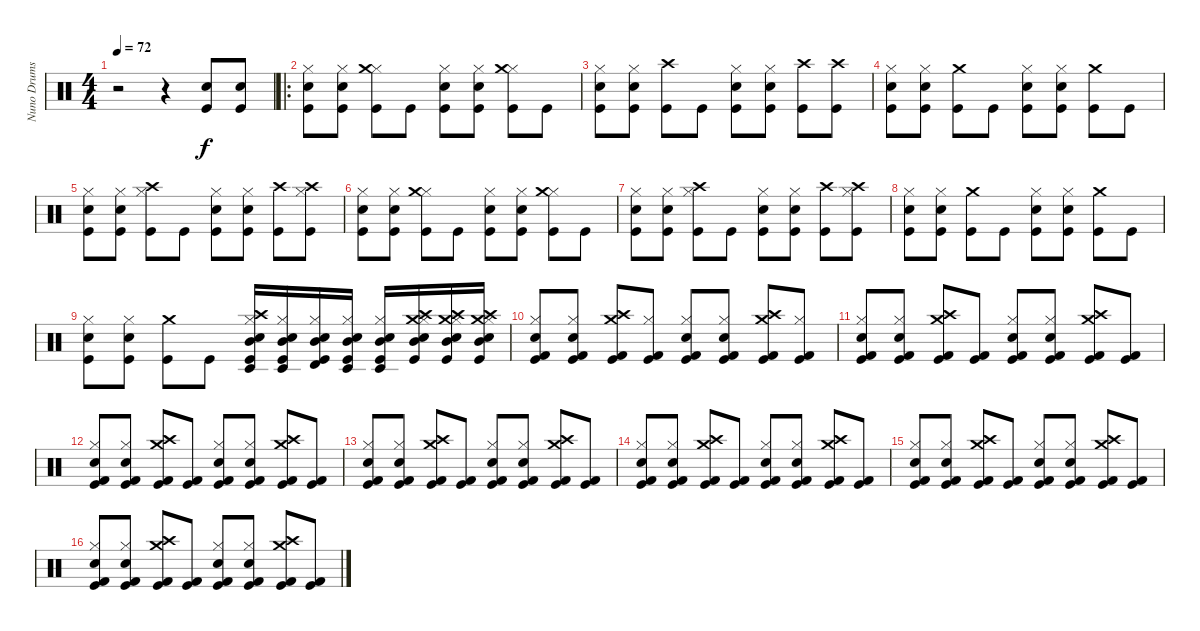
\track ("Nuno Drums" "Nuno Drums") {instrument percussion}
\staff {score}
\articulation defaults
\ts (4 4)
\tempo 72
\clef neutral
\ks c
r.2{dy f} r.4 ("Kick (hit)" "Electric Snare (hit)").8 ("Kick (hit)" "Electric Snare (hit)").8 |
\ro
("Kick (hit)" "Hi-Hat (closed)" "Electric Snare (hit)").8 ("Kick (hit)" "Hi-Hat (closed)" "Electric Snare (hit)").8 ("Kick (hit)" "Hi-Hat (closed)" "Crash medium (hit)").8 "Kick (hit)".8 ("Kick (hit)" "Hi-Hat (closed)" "Electric Snare (hit)").8 ("Kick (hit)" "Hi-Hat (closed)" "Electric Snare (hit)").8 ("Kick (hit)" "Hi-Hat (closed)" "Crash medium (hit)").8 "Kick (hit)".8 |
("Kick (hit)" "Hi-Hat (closed)" "Electric Snare (hit)").8 ("Kick (hit)" "Hi-Hat (closed)" "Electric Snare (hit)").8 ("Kick (hit)" "Crash high (hit)").8 "Kick (hit)".8 ("Kick (hit)" "Hi-Hat (closed)" "Electric Snare (hit)").8 ("Kick (hit)" "Hi-Hat (closed)" "Electric Snare (hit)").8 ("Kick (hit)" "Crash high (hit)").8 ("Kick (hit)" "Crash high (hit)").8 |
("Kick (hit)" "Hi-Hat (closed)" "Electric Snare (hit)").8 ("Kick (hit)" "Hi-Hat (closed)" "Electric Snare (hit)").8 ("Kick (hit)" "Crash medium (hit)").8 "Kick (hit)".8 ("Kick (hit)" "Hi-Hat (closed)" "Electric Snare (hit)").8 ("Kick (hit)" "Hi-Hat (closed)" "Electric Snare (hit)").8 ("Kick (hit)" "Crash medium (hit)").8 "Kick (hit)".8 |
("Kick (hit)" "Hi-Hat (closed)" "Electric Snare (hit)").8 ("Kick (hit)" "Hi-Hat (closed)" "Electric Snare (hit)").8 ("Kick (hit)" "Crash high (hit)" "Hi-Hat (closed)").8 "Kick (hit)".8 ("Kick (hit)" "Hi-Hat (closed)" "Electric Snare (hit)").8 ("Kick (hit)" "Hi-Hat (closed)" "Electric Snare (hit)").8 ("Kick (hit)" "Crash high (hit)").8 ("Kick (hit)" "Crash high (hit)" "Hi-Hat (closed)").8 |
("Kick (hit)" "Hi-Hat (closed)" "Electric Snare (hit)").8 ("Kick (hit)" "Hi-Hat (closed)" "Electric Snare (hit)").8 ("Kick (hit)" "Hi-Hat (closed)" "Crash medium (hit)").8 "Kick (hit)".8 ("Kick (hit)" "Hi-Hat (closed)" "Electric Snare (hit)").8 ("Kick (hit)" "Hi-Hat (closed)" "Electric Snare (hit)").8 ("Kick (hit)" "Hi-Hat (closed)" "Crash medium (hit)").8 "Kick (hit)".8 |
("Kick (hit)" "Hi-Hat (closed)" "Electric Snare (hit)").8 ("Kick (hit)" "Hi-Hat (closed)" "Electric Snare (hit)").8 ("Kick (hit)" "Crash high (hit)" "Hi-Hat (closed)").8 "Kick (hit)".8 ("Kick (hit)" "Hi-Hat (closed)" "Electric Snare (hit)").8 ("Kick (hit)" "Hi-Hat (closed)" "Electric Snare (hit)").8 ("Kick (hit)" "Crash high (hit)").8 ("Kick (hit)" "Crash high (hit)" "Hi-Hat (closed)").8 |
("Kick (hit)" "Hi-Hat (closed)" "Electric Snare (hit)").8 ("Kick (hit)" "Hi-Hat (closed)" "Electric Snare (hit)").8 ("Kick (hit)" "Crash medium (hit)").8 "Kick (hit)".8 ("Kick (hit)" "Hi-Hat (closed)" "Electric Snare (hit)").8 ("Kick (hit)" "Hi-Hat (closed)" "Electric Snare (hit)").8 ("Kick (hit)" "Crash medium (hit)").8 "Kick (hit)".8 |
("Kick (hit)" "Hi-Hat (closed)" "Electric Snare (hit)").8 ("Kick (hit)" "Hi-Hat (closed)" "Electric Snare (hit)").8 ("Kick (hit)" "Crash medium (hit)").8 "Kick (hit)".8 ("Hi-Hat (closed)" "Mid Tom (hit)" "Kick (hit)" "Crash high (hit)" "Timbale low (hit)" "Electric Snare (hit)").16 ("Hi-Hat (closed)" "Mid Tom (hit)" "Kick (hit)" "Timbale low (hit)" "Electric Snare (hit)").16 ("Hi-Hat (closed)" "Mid Tom (hit)" "Kick (hit)" "Timbale high (hit)" "Electric Snare (hit)").16 ("Hi-Hat (closed)" "Mid Tom (hit)" "Kick (hit)" "Timbale low (hit)" "Electric Snare (hit)").16 ("Hi-Hat (closed)" "Mid Tom (hit)" "Kick (hit)" "Timbale low (hit)" "Electric Snare (hit)").16 ("Electric Snare (hit)" "Mid Tom (hit)" "Kick (hit)" "Crash medium (hit)" "Hi-Hat (closed)" "Crash high (hit)").16 ("Electric Snare (hit)" "Mid Tom (hit)" "Kick (hit)" "Crash medium (hit)" "Hi-Hat (closed)" "Crash high (hit)").16 ("Electric Snare (hit)" "Mid Tom (hit)" "Kick (hit)" "Crash medium (hit)" "Hi-Hat (closed)" "Crash high (hit)").16 |
("Kick (hit)" "Kick (hit) 2" "Hi-Hat (closed)" "Electric Snare (hit)").8 ("Kick (hit)" "Kick (hit) 2" "Hi-Hat (closed)" "Electric Snare (hit)").8 ("Kick (hit)" "Kick (hit) 2" "Crash medium (hit)" "Crash high (hit)").8 ("Kick (hit)" "Kick (hit) 2" "Hi-Hat (closed)").8 ("Kick (hit)" "Kick (hit) 2" "Hi-Hat (closed)" "Electric Snare (hit)").8 ("Kick (hit)" "Kick (hit) 2" "Hi-Hat (closed)" "Electric Snare (hit)").8 ("Kick (hit)" "Kick (hit) 2" "Crash medium (hit)" "Crash high (hit)").8 ("Kick (hit)" "Kick (hit) 2" "Hi-Hat (closed)").8 |
("Kick (hit)" "Kick (hit) 2" "Hi-Hat (closed)" "Electric Snare (hit)").8 ("Kick (hit)" "Kick (hit) 2" "Hi-Hat (closed)" "Electric Snare (hit)").8 ("Kick (hit)" "Kick (hit) 2" "Crash medium (hit)" "Crash high (hit)").8 ("Kick (hit)" "Kick (hit) 2").8 ("Kick (hit)" "Kick (hit) 2" "Hi-Hat (closed)" "Electric Snare (hit)").8 ("Kick (hit)" "Kick (hit) 2" "Hi-Hat (closed)" "Electric Snare (hit)").8 ("Kick (hit)" "Kick (hit) 2" "Crash medium (hit)" "Crash high (hit)").8 ("Kick (hit)" "Kick (hit) 2").8 |
("Kick (hit)" "Kick (hit) 2" "Hi-Hat (closed)" "Electric Snare (hit)").8 ("Kick (hit)" "Kick (hit) 2" "Hi-Hat (closed)" "Electric Snare (hit)").8 ("Kick (hit)" "Kick (hit) 2" "Crash medium (hit)" "Crash high (hit)").8 ("Kick (hit)" "Kick (hit) 2").8 ("Kick (hit)" "Kick (hit) 2" "Hi-Hat (closed)" "Electric Snare (hit)").8 ("Kick (hit)" "Kick (hit) 2" "Hi-Hat (closed)" "Electric Snare (hit)").8 ("Kick (hit)" "Kick (hit) 2" "Crash medium (hit)" "Crash high (hit)").8 ("Kick (hit)" "Kick (hit) 2").8 |
("Kick (hit)" "Kick (hit) 2" "Hi-Hat (closed)" "Electric Snare (hit)").8 ("Kick (hit)" "Kick (hit) 2" "Hi-Hat (closed)" "Electric Snare (hit)").8 ("Kick (hit)" "Kick (hit) 2" "Crash medium (hit)" "Crash high (hit)").8 ("Kick (hit)" "Kick (hit) 2").8 ("Kick (hit)" "Kick (hit) 2" "Hi-Hat (closed)" "Electric Snare (hit)").8 ("Kick (hit)" "Kick (hit) 2" "Hi-Hat (closed)" "Electric Snare (hit)").8 ("Kick (hit)" "Kick (hit) 2" "Crash medium (hit)" "Crash high (hit)").8 ("Kick (hit)" "Kick (hit) 2").8 |
("Kick (hit)" "Kick (hit) 2" "Hi-Hat (closed)" "Electric Snare (hit)").8 ("Kick (hit)" "Kick (hit) 2" "Hi-Hat (closed)" "Electric Snare (hit)").8 ("Kick (hit)" "Kick (hit) 2" "Crash medium (hit)" "Crash high (hit)").8 ("Kick (hit)" "Kick (hit) 2").8 ("Kick (hit)" "Kick (hit) 2" "Hi-Hat (closed)" "Electric Snare (hit)").8 ("Kick (hit)" "Kick (hit) 2" "Hi-Hat (closed)" "Electric Snare (hit)").8 ("Kick (hit)" "Kick (hit) 2" "Crash medium (hit)" "Crash high (hit)").8 ("Kick (hit)" "Kick (hit) 2").8 |
("Kick (hit)" "Kick (hit) 2" "Hi-Hat (closed)" "Electric Snare (hit)").8 ("Kick (hit)" "Kick (hit) 2" "Hi-Hat (closed)" "Electric Snare (hit)").8 ("Kick (hit)" "Kick (hit) 2" "Crash medium (hit)" "Crash high (hit)").8 ("Kick (hit)" "Kick (hit) 2").8 ("Kick (hit)" "Kick (hit) 2" "Hi-Hat (closed)" "Electric Snare (hit)").8 ("Kick (hit)" "Kick (hit) 2" "Hi-Hat (closed)" "Electric Snare (hit)").8 ("Kick (hit)" "Kick (hit) 2" "Crash medium (hit)" "Crash high (hit)").8 ("Kick (hit)" "Kick (hit) 2").8 |
("Kick (hit)" "Kick (hit) 2" "Hi-Hat (closed)" "Electric Snare (hit)").8 ("Kick (hit)" "Kick (hit) 2" "Hi-Hat (closed)" "Electric Snare (hit)").8 ("Kick (hit)" "Kick (hit) 2" "Crash medium (hit)" "Crash high (hit)").8 ("Kick (hit)" "Kick (hit) 2").8 ("Kick (hit)" "Kick (hit) 2" "Hi-Hat (closed)" "Electric Snare (hit)").8 ("Kick (hit)" "Kick (hit) 2" "Hi-Hat (closed)" "Electric Snare (hit)").8 ("Kick (hit)" "Kick (hit) 2" "Crash medium (hit)" "Crash high (hit)").8 ("Kick (hit)" "Kick (hit) 2").8
